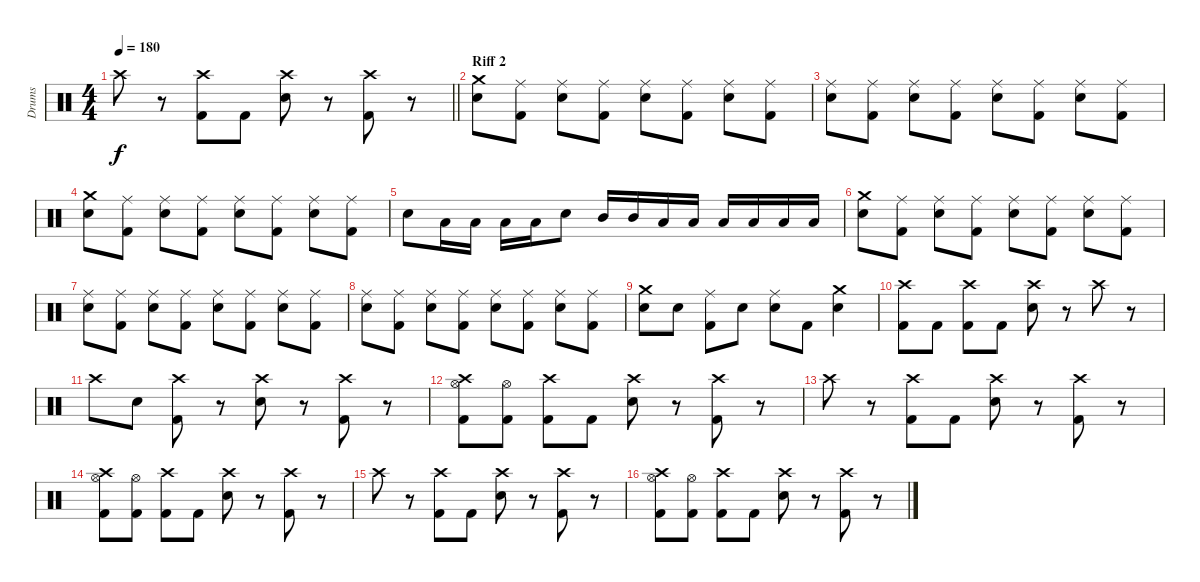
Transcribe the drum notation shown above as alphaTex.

\track ("Drums" "Drums") {instrument percussion}
\staff {score}
\articulation defaults
\ts (4 4)
\tempo 180
\clef neutral
\barLineRight lightlight
\ks c "Crash high (hit)".8{dy f}
r.8 ("Crash high (hit)" "Kick (hit) 2").8 "Kick (hit) 2".8 ("Crash high (hit)" "Snare (hit) 2").8 r.8 ("Crash high (hit)" "Kick (hit) 2").8 r.8 |
\section ("" "Riff 2")
("Crash medium (hit)" "Snare (hit) 2").8 ("Ride (middle)" "Kick (hit) 2").8 ("Ride (middle)" "Snare (hit) 2").8 ("Ride (middle)" "Kick (hit) 2").8 ("Ride (middle)" "Snare (hit) 2").8 ("Ride (middle)" "Kick (hit) 2").8 ("Ride (middle)" "Snare (hit) 2").8 ("Ride (middle)" "Kick (hit) 2").8 |
("Ride (middle)" "Snare (hit) 2").8 ("Ride (middle)" "Kick (hit) 2").8 ("Ride (middle)" "Snare (hit) 2").8 ("Ride (middle)" "Kick (hit) 2").8 ("Ride (middle)" "Snare (hit) 2").8 ("Ride (middle)" "Kick (hit) 2").8 ("Ride (middle)" "Snare (hit) 2").8 ("Ride (middle)" "Kick (hit) 2").8 |
("Crash medium (hit)" "Snare (hit) 2").8 ("Ride (middle)" "Kick (hit) 2").8 ("Ride (middle)" "Snare (hit) 2").8 ("Ride (middle)" "Kick (hit) 2").8 ("Ride (middle)" "Snare (hit) 2").8 ("Ride (middle)" "Kick (hit) 2").8 ("Ride (middle)" "Snare (hit) 2").8 ("Ride (middle)" "Kick (hit) 2").8 |
"Snare (hit) 2".8 "Low Tom (hit)".16 "Low Tom (hit)".16 "Low Floor Tom (hit)".16 "Low Floor Tom (hit)".16 "Snare (hit) 2".8 "Mid Tom (hit)".16 "Mid Tom (hit)".16 "Low Tom (hit)".16 "Low Tom (hit)".16 "Low Floor Tom (hit)".16 "Low Floor Tom (hit)".16 "Low Floor Tom (hit)".16 "Low Floor Tom (hit)".16 |
("Crash medium (hit)" "Snare (hit) 2").8 ("Ride (middle)" "Kick (hit) 2").8 ("Ride (middle)" "Snare (hit) 2").8 ("Ride (middle)" "Kick (hit) 2").8 ("Ride (middle)" "Snare (hit) 2").8 ("Ride (middle)" "Kick (hit) 2").8 ("Ride (middle)" "Snare (hit) 2").8 ("Ride (middle)" "Kick (hit) 2").8 |
("Ride (middle)" "Snare (hit) 2").8 ("Ride (middle)" "Kick (hit) 2").8 ("Ride (middle)" "Snare (hit) 2").8 ("Ride (middle)" "Kick (hit) 2").8 ("Ride (middle)" "Snare (hit) 2").8 ("Ride (middle)" "Kick (hit) 2").8 ("Ride (middle)" "Snare (hit) 2").8 ("Ride (middle)" "Kick (hit) 2").8 |
("Ride (middle)" "Snare (hit) 2").8 ("Ride (middle)" "Kick (hit) 2").8 ("Ride (middle)" "Snare (hit) 2").8 ("Ride (middle)" "Kick (hit) 2").8 ("Ride (middle)" "Snare (hit) 2").8 ("Ride (middle)" "Kick (hit) 2").8 ("Ride (middle)" "Snare (hit) 2").8 ("Ride (middle)" "Kick (hit) 2").8 |
("Crash medium (hit)" "Snare (hit) 2").8 "Snare (hit) 2".8 ("Ride (middle)" "Kick (hit) 2").8 "Snare (hit) 2".8 ("Ride (middle)" "Snare (hit) 2").8 "Kick (hit) 2".8 ("Crash medium (hit)" "Snare (hit) 2").4 |
("Crash high (hit)" "Kick (hit) 2").8 "Kick (hit) 2".8 ("Crash high (hit)" "Kick (hit) 2").8 "Kick (hit) 2".8 ("Crash high (hit)" "Snare (hit) 2").8 r.8 "Crash high (hit)".8 r.8 |
"Crash high (hit)".8 "Snare (hit) 2".8 ("Crash high (hit)" "Kick (hit) 2").8 r.8 ("Crash high (hit)" "Snare (hit) 2").8 r.8 ("Crash high (hit)" "Kick (hit) 2").8 r.8 |
("Crash high (hit)" "Hi-Hat (open)" "Kick (hit) 2").8 ("Hi-Hat (open)" "Kick (hit) 2").8 ("Crash high (hit)" "Kick (hit) 2").8 "Kick (hit) 2".8 ("Crash high (hit)" "Snare (hit) 2").8 r.8 ("Crash high (hit)" "Kick (hit) 2").8 r.8 |
"Crash high (hit)".8 r.8 ("Crash high (hit)" "Kick (hit) 2").8 "Kick (hit) 2".8 ("Crash high (hit)" "Snare (hit) 2").8 r.8 ("Crash high (hit)" "Kick (hit) 2").8 r.8 |
("Crash high (hit)" "Hi-Hat (open)" "Kick (hit) 2").8 ("Hi-Hat (open)" "Kick (hit) 2").8 ("Crash high (hit)" "Kick (hit) 2").8 "Kick (hit) 2".8 ("Crash high (hit)" "Snare (hit) 2").8 r.8 ("Crash high (hit)" "Kick (hit) 2").8 r.8 |
"Crash high (hit)".8 r.8 ("Crash high (hit)" "Kick (hit) 2").8 "Kick (hit) 2".8 ("Crash high (hit)" "Snare (hit) 2").8 r.8 ("Crash high (hit)" "Kick (hit) 2").8 r.8 |
("Crash high (hit)" "Hi-Hat (open)" "Kick (hit) 2").8 ("Hi-Hat (open)" "Kick (hit) 2").8 ("Crash high (hit)" "Kick (hit) 2").8 "Kick (hit) 2".8 ("Crash high (hit)" "Snare (hit) 2").8 r.8 ("Crash high (hit)" "Kick (hit) 2").8 r.8
